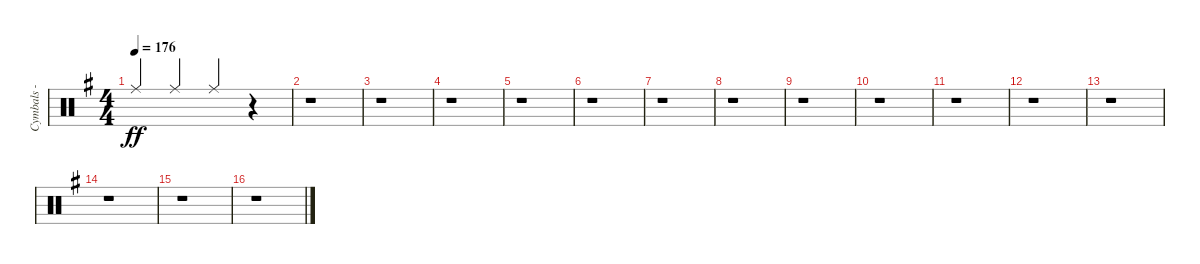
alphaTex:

\track ("Cymbals - ride" "Cymbals - ") {instrument percussion}
\staff {score}
\articulation defaults
\ts (4 4)
\tempo 176
\clef neutral
\ks eminor "Ride (middle)".4{dy ff beam Up} "Ride (middle)".4{beam Up} "Ride (middle)".4{beam Up}
r.4 |
r.1 |
r.1 |
r.1 |
r.1 |
r.1 |
r.1 |
r.1 |
r.1 |
r.1 |
r.1 |
r.1 |
r.1 |
r.1 |
r.1 |
r.1
